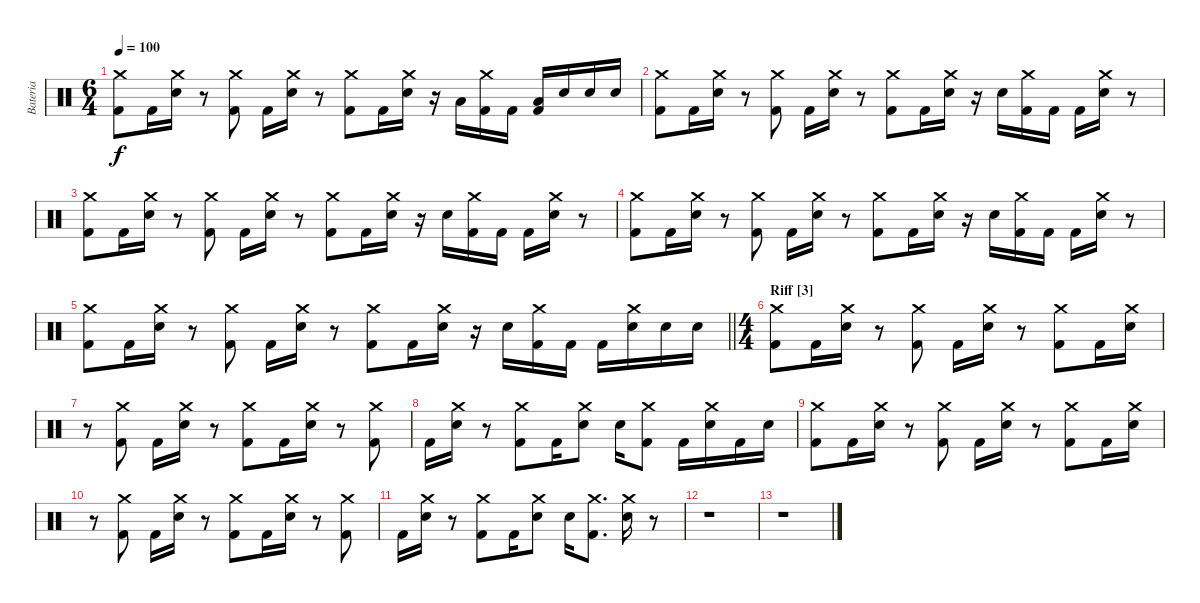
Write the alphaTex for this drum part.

\track ("Bateria" "Bateria") {instrument percussion}
\staff {score}
\articulation defaults
\ts (6 4)
\tempo 100
\clef neutral
\ks c
("Crash medium (hit)" "Kick (hit) 2").8{dy f} "Kick (hit) 2".16 ("Crash medium (hit)" "Electric Snare (hit)").16 r.8 ("Crash medium (hit)" "Kick (hit) 2").8 "Kick (hit) 2".16 ("Crash medium (hit)" "Electric Snare (hit)").16 r.8 ("Crash medium (hit)" "Kick (hit) 2").8 "Kick (hit) 2".16 ("Crash medium (hit)" "Electric Snare (hit)").16 r.16 "Low Tom (hit)".16 ("Crash medium (hit)" "Kick (hit) 2").16 "Kick (hit) 2".16 ("Low Tom (hit)" "Kick (hit) 2").16 "Electric Snare (hit)".16 "Electric Snare (hit)".16 "Electric Snare (hit)".16 |
("Crash medium (hit)" "Kick (hit) 2").8 "Kick (hit) 2".16 ("Crash medium (hit)" "Electric Snare (hit)").16 r.8 ("Crash medium (hit)" "Kick (hit) 2").8 "Kick (hit) 2".16 ("Crash medium (hit)" "Electric Snare (hit)").16 r.8 ("Crash medium (hit)" "Kick (hit) 2").8 "Kick (hit) 2".16 ("Crash medium (hit)" "Electric Snare (hit)").16 r.16 "Electric Snare (hit)".16 ("Crash medium (hit)" "Kick (hit) 2").16 "Kick (hit) 2".16 "Kick (hit) 2".16 ("Crash medium (hit)" "Electric Snare (hit)").16 r.8 |
("Crash medium (hit)" "Kick (hit) 2").8 "Kick (hit) 2".16 ("Crash medium (hit)" "Electric Snare (hit)").16 r.8 ("Crash medium (hit)" "Kick (hit) 2").8 "Kick (hit) 2".16 ("Crash medium (hit)" "Electric Snare (hit)").16 r.8 ("Crash medium (hit)" "Kick (hit) 2").8 "Kick (hit) 2".16 ("Crash medium (hit)" "Electric Snare (hit)").16 r.16 "Electric Snare (hit)".16 ("Crash medium (hit)" "Kick (hit) 2").16 "Kick (hit) 2".16 "Kick (hit) 2".16 ("Crash medium (hit)" "Electric Snare (hit)").16 r.8 |
("Crash medium (hit)" "Kick (hit) 2").8 "Kick (hit) 2".16 ("Crash medium (hit)" "Electric Snare (hit)").16 r.8 ("Crash medium (hit)" "Kick (hit) 2").8 "Kick (hit) 2".16 ("Crash medium (hit)" "Electric Snare (hit)").16 r.8 ("Crash medium (hit)" "Kick (hit) 2").8 "Kick (hit) 2".16 ("Crash medium (hit)" "Electric Snare (hit)").16 r.16 "Electric Snare (hit)".16 ("Crash medium (hit)" "Kick (hit) 2").16 "Kick (hit) 2".16 "Kick (hit) 2".16 ("Crash medium (hit)" "Electric Snare (hit)").16 r.8 |
\barLineRight lightlight
("Crash medium (hit)" "Kick (hit) 2").8 "Kick (hit) 2".16 ("Crash medium (hit)" "Electric Snare (hit)").16 r.8 ("Crash medium (hit)" "Kick (hit) 2").8 "Kick (hit) 2".16 ("Crash medium (hit)" "Electric Snare (hit)").16 r.8 ("Crash medium (hit)" "Kick (hit) 2").8 "Kick (hit) 2".16 ("Crash medium (hit)" "Electric Snare (hit)").16 r.16 "Electric Snare (hit)".16 ("Crash medium (hit)" "Kick (hit) 2").16 "Kick (hit) 2".16 "Kick (hit) 2".16 ("Crash medium (hit)" "Electric Snare (hit)").16 "Electric Snare (hit)".16 "Electric Snare (hit)".16 |
\ts (4 4)
\section ("" "Riff [3]")
("Crash medium (hit)" "Kick (hit) 2").8 "Kick (hit) 2".16 ("Crash medium (hit)" "Electric Snare (hit)").16 r.8 ("Crash medium (hit)" "Kick (hit) 2").8 "Kick (hit) 2".16 ("Crash medium (hit)" "Electric Snare (hit)").16 r.8 ("Crash medium (hit)" "Kick (hit) 2").8 "Kick (hit) 2".16 ("Crash medium (hit)" "Electric Snare (hit)").16 |
r.8 ("Crash medium (hit)" "Kick (hit) 2").8 "Kick (hit) 2".16 ("Crash medium (hit)" "Electric Snare (hit)").16 r.8 ("Crash medium (hit)" "Kick (hit) 2").8 "Kick (hit) 2".16 ("Crash medium (hit)" "Electric Snare (hit)").16 r.8 ("Crash medium (hit)" "Kick (hit) 2").8 |
"Kick (hit) 2".16 ("Crash medium (hit)" "Electric Snare (hit)").16 r.8 ("Crash medium (hit)" "Kick (hit) 2").8 "Kick (hit) 2".16 ("Crash medium (hit)" "Electric Snare (hit)").8 "Electric Snare (hit)".16 ("Crash medium (hit)" "Kick (hit) 2").8 "Kick (hit) 2".16 ("Crash medium (hit)" "Electric Snare (hit)").16 "Kick (hit) 2".16 "Electric Snare (hit)".16 |
("Crash medium (hit)" "Kick (hit) 2").8 "Kick (hit) 2".16 ("Crash medium (hit)" "Electric Snare (hit)").16 r.8 ("Crash medium (hit)" "Kick (hit) 2").8 "Kick (hit) 2".16 ("Crash medium (hit)" "Electric Snare (hit)").16 r.8 ("Crash medium (hit)" "Kick (hit) 2").8 "Kick (hit) 2".16 ("Crash medium (hit)" "Electric Snare (hit)").16 |
r.8 ("Crash medium (hit)" "Kick (hit) 2").8 "Kick (hit) 2".16 ("Crash medium (hit)" "Electric Snare (hit)").16 r.8 ("Crash medium (hit)" "Kick (hit) 2").8 "Kick (hit) 2".16 ("Crash medium (hit)" "Electric Snare (hit)").16 r.8 ("Crash medium (hit)" "Kick (hit) 2").8 |
"Kick (hit) 2".16 ("Crash medium (hit)" "Electric Snare (hit)").16 r.8 ("Crash medium (hit)" "Kick (hit) 2").8 "Kick (hit) 2".16 ("Crash medium (hit)" "Electric Snare (hit)").8 "Electric Snare (hit)".16 ("Crash medium (hit)" "Kick (hit) 2").8{d} ("Crash medium (hit)" "Electric Snare (hit)").16 r.8 |
r.1 |
r.1
